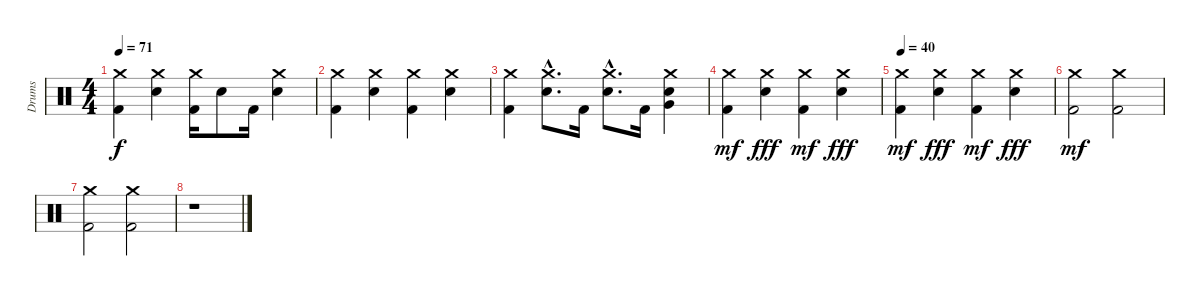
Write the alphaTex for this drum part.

\track ("Drums" "Drums") {instrument percussion}
\staff {score}
\articulation defaults
\ts (4 4)
\tempo 71
\clef neutral
\ks c
("Crash medium (hit)" "Kick (hit) 2").4{dy f} ("Crash medium (hit)" "Electric Snare (hit)").4 ("Crash medium (hit)" "Kick (hit) 2").16 "Electric Snare (hit)".8 "Kick (hit) 2".16 ("Crash medium (hit)" "Electric Snare (hit)").4 |
("Crash medium (hit)" "Kick (hit) 2").4 ("Crash medium (hit)" "Electric Snare (hit)").4 ("Crash medium (hit)" "Kick (hit) 2").4 ("Crash medium (hit)" "Electric Snare (hit)").4 |
("Crash medium (hit)" "Kick (hit) 2").4 ("Crash medium (hit)"{hac} "Electric Snare (hit)"{hac}).8{d} "Kick (hit) 2".16 ("Crash medium (hit)"{hac} "Electric Snare (hit)"{hac}).8{d} "Kick (hit) 2".16 ("Crash medium (hit)" "Electric Snare (hit)" "Very Low Tom (hit)").4 |
("Crash medium (hit)" "Kick (hit) 2").4{dy mf} ("Crash medium (hit)" "Electric Snare (hit)").4{dy fff} ("Crash medium (hit)" "Kick (hit) 2").4{dy mf} ("Crash medium (hit)" "Electric Snare (hit)").4{dy fff} |
\tempo 40
("Crash medium (hit)" "Kick (hit) 2").4{dy mf} ("Crash medium (hit)" "Electric Snare (hit)").4{dy fff} ("Crash medium (hit)" "Kick (hit) 2").4{dy mf} ("Crash medium (hit)" "Electric Snare (hit)").4{dy fff} |
("Crash medium (hit)" "Kick (hit) 2").2{dy mf} ("Crash medium (hit)" "Kick (hit) 2").2 |
("Crash medium (hit)" "Kick (hit) 2").2 ("Crash medium (hit)" "Kick (hit) 2").2 |
r.1
